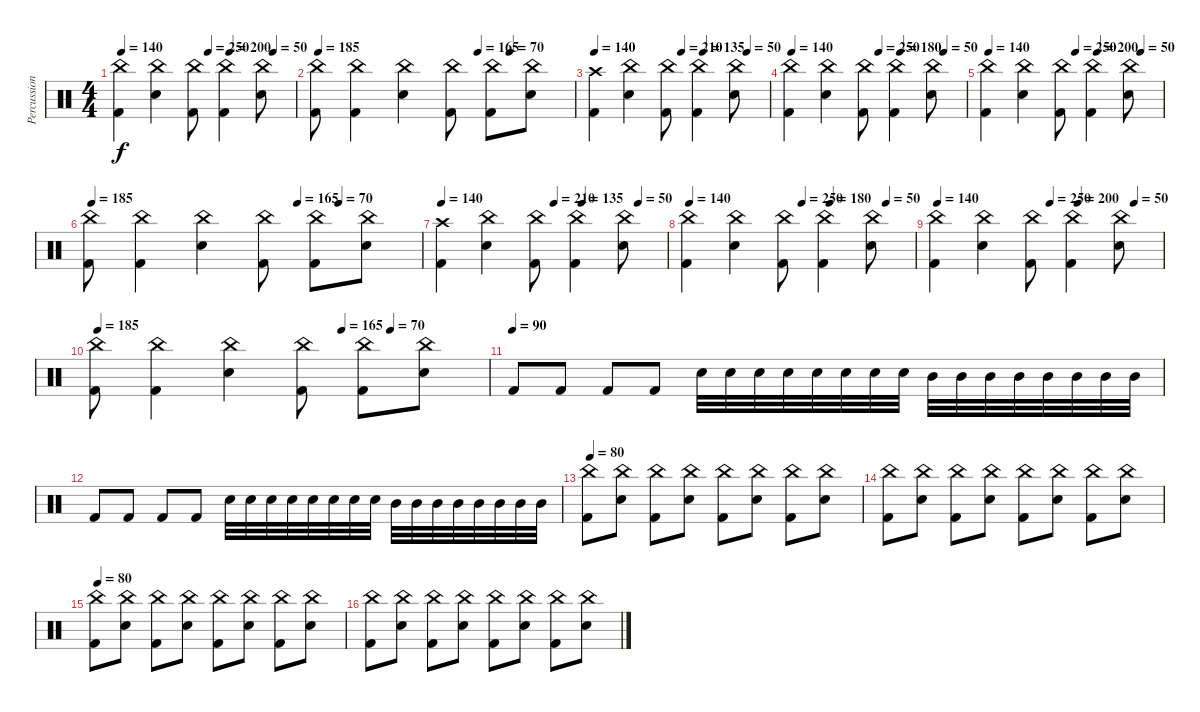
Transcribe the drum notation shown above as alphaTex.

\track ("Percussion" "Percussion") {instrument percussion}
\staff {score}
\articulation defaults
\ts (4 4)
\tempo 140
\tempo (250 0.5)
\tempo (200 0.625)
\tempo (50 0.875)
\clef neutral
\ks c
("China (hit)" "Kick (hit) 2").4{dy f} ("China (hit)" "Snare (hit) 2").4 ("China (hit)" "Kick (hit) 2").8 ("China (hit)" "Kick (hit) 2").4 ("China (hit)" "Snare (hit) 2").8 |
\tempo 185
\tempo (165 0.625)
\tempo (70 0.75)
("China (hit)" "Kick (hit) 2").8 ("China (hit)" "Kick (hit) 2").4 ("China (hit)" "Snare (hit) 2").4 ("China (hit)" "Kick (hit) 2").8 ("China (hit)" "Kick (hit) 2").8 ("China (hit)" "Snare (hit) 2").8 |
\tempo 140
\tempo (210 0.5)
\tempo (400 0.625)
\tempo (50 0.875)
\tempo (135 0.625)
("Crash high (hit)" "Kick (hit) 2").4 ("China (hit)" "Snare (hit) 2").4 ("China (hit)" "Kick (hit) 2").8 ("China (hit)" "Kick (hit) 2").4 ("China (hit)" "Snare (hit) 2").8 |
\tempo 140
\tempo (250 0.5)
\tempo (180 0.625)
\tempo (50 0.875)
("China (hit)" "Kick (hit) 2").4 ("China (hit)" "Snare (hit) 2").4 ("China (hit)" "Kick (hit) 2").8 ("China (hit)" "Kick (hit) 2").4 ("China (hit)" "Snare (hit) 2").8 |
\tempo 140
\tempo (250 0.5)
\tempo (200 0.625)
\tempo (50 0.875)
("China (hit)" "Kick (hit) 2").4 ("China (hit)" "Snare (hit) 2").4 ("China (hit)" "Kick (hit) 2").8 ("China (hit)" "Kick (hit) 2").4 ("China (hit)" "Snare (hit) 2").8 |
\tempo 185
\tempo (165 0.625)
\tempo (70 0.75)
("China (hit)" "Kick (hit) 2").8 ("China (hit)" "Kick (hit) 2").4 ("China (hit)" "Snare (hit) 2").4 ("China (hit)" "Kick (hit) 2").8 ("China (hit)" "Kick (hit) 2").8 ("China (hit)" "Snare (hit) 2").8 |
\tempo 140
\tempo (210 0.5)
\tempo (400 0.625)
\tempo (50 0.875)
\tempo (135 0.625)
("Crash high (hit)" "Kick (hit) 2").4 ("China (hit)" "Snare (hit) 2").4 ("China (hit)" "Kick (hit) 2").8 ("China (hit)" "Kick (hit) 2").4 ("China (hit)" "Snare (hit) 2").8 |
\tempo 140
\tempo (250 0.5)
\tempo (180 0.625)
\tempo (50 0.875)
("China (hit)" "Kick (hit) 2").4 ("China (hit)" "Snare (hit) 2").4 ("China (hit)" "Kick (hit) 2").8 ("China (hit)" "Kick (hit) 2").4 ("China (hit)" "Snare (hit) 2").8 |
\tempo 140
\tempo (250 0.5)
\tempo (200 0.625)
\tempo (50 0.875)
("China (hit)" "Kick (hit) 2").4 ("China (hit)" "Snare (hit) 2").4 ("China (hit)" "Kick (hit) 2").8 ("China (hit)" "Kick (hit) 2").4 ("China (hit)" "Snare (hit) 2").8 |
\tempo 185
\tempo (165 0.625)
\tempo (70 0.75)
("China (hit)" "Kick (hit) 2").8 ("China (hit)" "Kick (hit) 2").4 ("China (hit)" "Snare (hit) 2").4 ("China (hit)" "Kick (hit) 2").8 ("China (hit)" "Kick (hit) 2").8 ("China (hit)" "Snare (hit) 2").8 |
\tempo (90)
"Kick (hit) 2".8 "Kick (hit) 2".8 "Kick (hit) 2".8 "Kick (hit) 2".8 "Snare (hit) 2".32 "Snare (hit) 2".32 "Snare (hit) 2".32 "Snare (hit) 2".32 "Snare (hit) 2".32 "Snare (hit) 2".32 "Snare (hit) 2".32 "Snare (hit) 2".32 "Mid Tom (hit)".32 "Mid Tom (hit)".32 "Mid Tom (hit)".32 "Mid Tom (hit)".32 "Mid Tom (hit)".32 "Mid Tom (hit)".32 "Mid Tom (hit)".32 "Mid Tom (hit)".32 |
"Kick (hit) 2".8 "Kick (hit) 2".8 "Kick (hit) 2".8 "Kick (hit) 2".8 "Snare (hit) 2".32 "Snare (hit) 2".32 "Snare (hit) 2".32 "Snare (hit) 2".32 "Snare (hit) 2".32 "Snare (hit) 2".32 "Snare (hit) 2".32 "Snare (hit) 2".32 "Mid Tom (hit)".32 "Mid Tom (hit)".32 "Mid Tom (hit)".32 "Mid Tom (hit)".32 "Mid Tom (hit)".32 "Mid Tom (hit)".32 "Mid Tom (hit)".32 "Mid Tom (hit)".32 |
\tempo 80
("China (hit)" "Kick (hit) 2").8 ("China (hit)" "Snare (hit) 2").8 ("China (hit)" "Kick (hit) 2").8 ("China (hit)" "Snare (hit) 2").8 ("China (hit)" "Kick (hit) 2").8 ("China (hit)" "Snare (hit) 2").8 ("China (hit)" "Kick (hit) 2").8 ("China (hit)" "Snare (hit) 2").8 |
("China (hit)" "Kick (hit) 2").8 ("China (hit)" "Snare (hit) 2").8 ("China (hit)" "Kick (hit) 2").8 ("China (hit)" "Snare (hit) 2").8 ("China (hit)" "Kick (hit) 2").8 ("China (hit)" "Snare (hit) 2").8 ("China (hit)" "Kick (hit) 2").8 ("China (hit)" "Snare (hit) 2").8 |
\tempo 80
("China (hit)" "Kick (hit) 2").8 ("China (hit)" "Snare (hit) 2").8 ("China (hit)" "Kick (hit) 2").8 ("China (hit)" "Snare (hit) 2").8 ("China (hit)" "Kick (hit) 2").8 ("China (hit)" "Snare (hit) 2").8 ("China (hit)" "Kick (hit) 2").8 ("China (hit)" "Snare (hit) 2").8 |
("China (hit)" "Kick (hit) 2").8 ("China (hit)" "Snare (hit) 2").8 ("China (hit)" "Kick (hit) 2").8 ("China (hit)" "Snare (hit) 2").8 ("China (hit)" "Kick (hit) 2").8 ("China (hit)" "Snare (hit) 2").8 ("China (hit)" "Kick (hit) 2").8 ("China (hit)" "Snare (hit) 2").8
